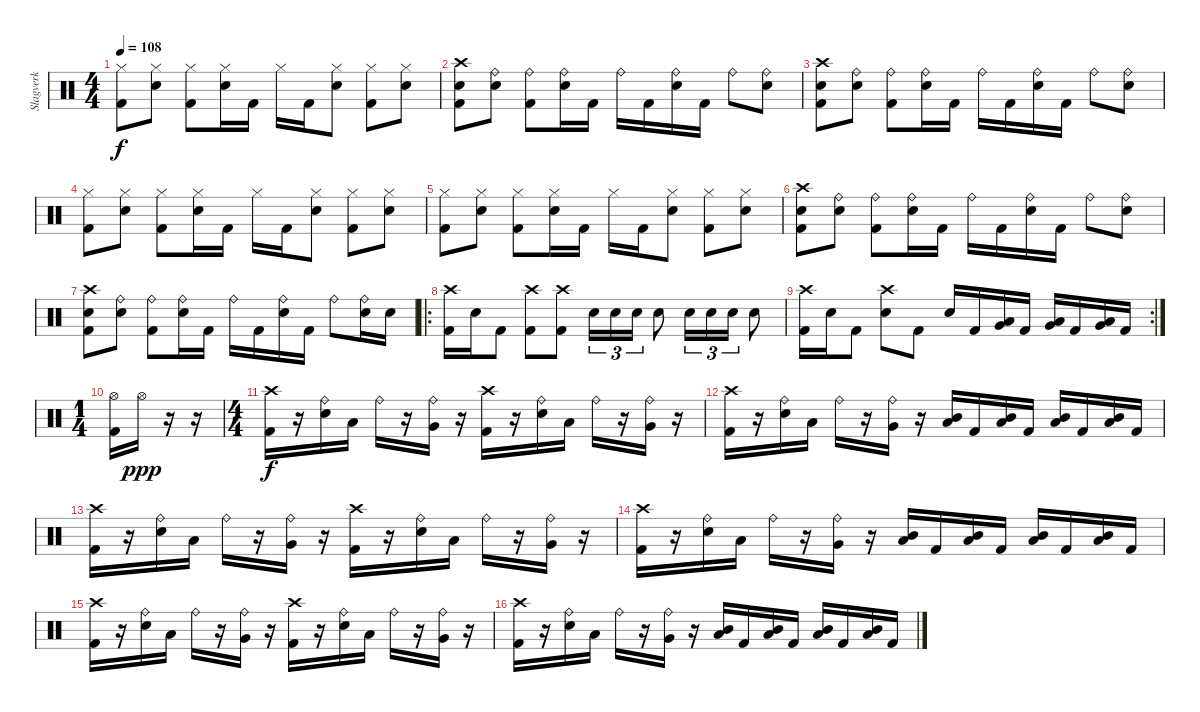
\track ("Slagverk" "Slagverk") {instrument percussion}
\staff {score}
\articulation defaults
\ts (4 4)
\tempo 108
\clef neutral
\ks c
("Hi-Hat (closed)" "Kick (hit) 2").8{dy f} ("Hi-Hat (closed)" "Electric Snare (hit)").8 ("Hi-Hat (closed)" "Kick (hit) 2").8 ("Hi-Hat (closed)" "Electric Snare (hit)").16 "Kick (hit) 2".16 "Hi-Hat (closed)".16 "Kick (hit) 2".16 ("Hi-Hat (closed)" "Electric Snare (hit)").8 ("Hi-Hat (closed)" "Kick (hit) 2").8 ("Hi-Hat (closed)" "Electric Snare (hit)").8 |
("Crash high (hit)" "Kick (hit) 2" "Snare (hit)").8 ("Ride (bell)" "Electric Snare (hit)").8 ("Ride (bell)" "Kick (hit) 2").8 ("Ride (bell)" "Electric Snare (hit)").16 "Kick (hit) 2".16 "Ride (bell)".16 "Kick (hit) 2".16 ("Ride (bell)" "Electric Snare (hit)").16 "Kick (hit) 2".16 "Ride (bell)".8 ("Ride (bell)" "Electric Snare (hit)").8 |
("Crash high (hit)" "Kick (hit) 2" "Snare (hit)").8 ("Ride (bell)" "Electric Snare (hit)").8 ("Ride (bell)" "Kick (hit) 2").8 ("Ride (bell)" "Electric Snare (hit)").16 "Kick (hit) 2".16 "Ride (bell)".16 "Kick (hit) 2".16 ("Ride (bell)" "Electric Snare (hit)").16 "Kick (hit) 2".16 "Ride (bell)".8 ("Ride (bell)" "Electric Snare (hit)").8 |
("Hi-Hat (closed)" "Kick (hit) 2").8 ("Hi-Hat (closed)" "Electric Snare (hit)").8 ("Hi-Hat (closed)" "Kick (hit) 2").8 ("Hi-Hat (closed)" "Electric Snare (hit)").16 "Kick (hit) 2".16 "Hi-Hat (closed)".16 "Kick (hit) 2".16 ("Hi-Hat (closed)" "Electric Snare (hit)").8 ("Hi-Hat (closed)" "Kick (hit) 2").8 ("Hi-Hat (closed)" "Electric Snare (hit)").8 |
("Hi-Hat (closed)" "Kick (hit) 2").8 ("Hi-Hat (closed)" "Electric Snare (hit)").8 ("Hi-Hat (closed)" "Kick (hit) 2").8 ("Hi-Hat (closed)" "Electric Snare (hit)").16 "Kick (hit) 2".16 "Hi-Hat (closed)".16 "Kick (hit) 2".16 ("Hi-Hat (closed)" "Electric Snare (hit)").8 ("Hi-Hat (closed)" "Kick (hit) 2").8 ("Hi-Hat (closed)" "Electric Snare (hit)").8 |
("Crash high (hit)" "Kick (hit) 2" "Snare (hit)").8 ("Ride (bell)" "Electric Snare (hit)").8 ("Ride (bell)" "Kick (hit) 2").8 ("Ride (bell)" "Electric Snare (hit)").16 "Kick (hit) 2".16 "Ride (bell)".16 "Kick (hit) 2".16 ("Ride (bell)" "Electric Snare (hit)").16 "Kick (hit) 2".16 "Ride (bell)".8 ("Ride (bell)" "Electric Snare (hit)").8 |
("Crash high (hit)" "Kick (hit) 2" "Snare (hit)").8 ("Ride (bell)" "Electric Snare (hit)").8 ("Ride (bell)" "Kick (hit) 2").8 ("Ride (bell)" "Electric Snare (hit)").16 "Kick (hit) 2".16 "Ride (bell)".16 "Kick (hit) 2".16 ("Ride (bell)" "Electric Snare (hit)").16 "Kick (hit) 2".16 "Ride (bell)".8 ("Ride (bell)" "Electric Snare (hit)").16 "Electric Snare (hit)".16 |
\ro
("Crash high (hit)" "Kick (hit) 2").16 "Electric Snare (hit)".16 "Kick (hit) 2".8 ("Crash high (hit)" "Kick (hit) 2").8 ("Crash high (hit)" "Kick (hit) 2").8 "Electric Snare (hit)".16{tu (3 2)} "Electric Snare (hit)".16{tu (3 2)} "Electric Snare (hit)".16{tu (3 2)} "Electric Snare (hit)".8 "Electric Snare (hit)".16{tu (3 2)} "Electric Snare (hit)".16{tu (3 2)} "Electric Snare (hit)".16{tu (3 2)} "Electric Snare (hit)".8 |
\rc 2
("Kick (hit) 2" "Crash high (hit)").16 "Electric Snare (hit)".16 "Kick (hit) 2".8 ("Electric Snare (hit)" "Crash high (hit)").8 "Kick (hit) 2".8 "Electric Snare (hit)".16 "Kick (hit) 2".16 ("Low Tom (hit)" "Very Low Tom (hit)").16 "Kick (hit) 2".16 ("Low Tom (hit)" "Very Low Tom (hit)").16 "Kick (hit) 2".16 ("Low Tom (hit)" "Very Low Tom (hit)").16 "Kick (hit) 2".16 |
\ts (1 4)
("Hi-Hat (open)" "Kick (hit) 2").16 "Hi-Hat (open)".16{dy ppp} r.16 r.16 |
\ts (4 4)
("Crash high (hit)" "Kick (hit) 2").16{dy f} r.16 ("Ride (bell)" "Electric Snare (hit)").16 "Low Tom (hit)".16 "Ride (bell)".16 r.16 ("Ride (bell)" "Very Low Tom (hit)").16 r.16 ("Crash high (hit)" "Kick (hit) 2").16 r.16 ("Ride (bell)" "Electric Snare (hit)").16 "Low Tom (hit)".16 "Ride (bell)".16 r.16 ("Ride (bell)" "Very Low Tom (hit)").16 r.16 |
("Crash high (hit)" "Kick (hit) 2").16 r.16 ("Ride (bell)" "Electric Snare (hit)").16 "Low Tom (hit)".16 "Ride (bell)".16 r.16 ("Ride (bell)" "Very Low Tom (hit)").16 r.16 ("Mid Tom (hit)" "Low Tom (hit)").16 "Kick (hit) 2".16 ("Mid Tom (hit)" "Low Tom (hit)").16 "Kick (hit) 2".16 ("Mid Tom (hit)" "Low Tom (hit)").16 "Kick (hit) 2".16 ("Mid Tom (hit)" "Low Tom (hit)").16 "Kick (hit) 2".16 |
("Crash high (hit)" "Kick (hit) 2").16 r.16 ("Ride (bell)" "Electric Snare (hit)").16 "Low Tom (hit)".16 "Ride (bell)".16 r.16 ("Ride (bell)" "Very Low Tom (hit)").16 r.16 ("Crash high (hit)" "Kick (hit) 2").16 r.16 ("Ride (bell)" "Electric Snare (hit)").16 "Low Tom (hit)".16 "Ride (bell)".16 r.16 ("Ride (bell)" "Very Low Tom (hit)").16 r.16 |
("Crash high (hit)" "Kick (hit) 2").16 r.16 ("Ride (bell)" "Electric Snare (hit)").16 "Low Tom (hit)".16 "Ride (bell)".16 r.16 ("Ride (bell)" "Very Low Tom (hit)").16 r.16 ("Mid Tom (hit)" "Low Tom (hit)").16 "Kick (hit) 2".16 ("Mid Tom (hit)" "Low Tom (hit)").16 "Kick (hit) 2".16 ("Mid Tom (hit)" "Low Tom (hit)").16 "Kick (hit) 2".16 ("Mid Tom (hit)" "Low Tom (hit)").16 "Kick (hit) 2".16 |
("Crash high (hit)" "Kick (hit) 2").16 r.16 ("Ride (bell)" "Electric Snare (hit)").16 "Low Tom (hit)".16 "Ride (bell)".16 r.16 ("Ride (bell)" "Very Low Tom (hit)").16 r.16 ("Crash high (hit)" "Kick (hit) 2").16 r.16 ("Ride (bell)" "Electric Snare (hit)").16 "Low Tom (hit)".16 "Ride (bell)".16 r.16 ("Ride (bell)" "Very Low Tom (hit)").16 r.16 |
("Crash high (hit)" "Kick (hit) 2").16 r.16 ("Ride (bell)" "Electric Snare (hit)").16 "Low Tom (hit)".16 "Ride (bell)".16 r.16 ("Ride (bell)" "Very Low Tom (hit)").16 r.16 ("Mid Tom (hit)" "Low Tom (hit)").16 "Kick (hit) 2".16 ("Mid Tom (hit)" "Low Tom (hit)").16 "Kick (hit) 2".16 ("Mid Tom (hit)" "Low Tom (hit)").16 "Kick (hit) 2".16 ("Mid Tom (hit)" "Low Tom (hit)").16 "Kick (hit) 2".16
